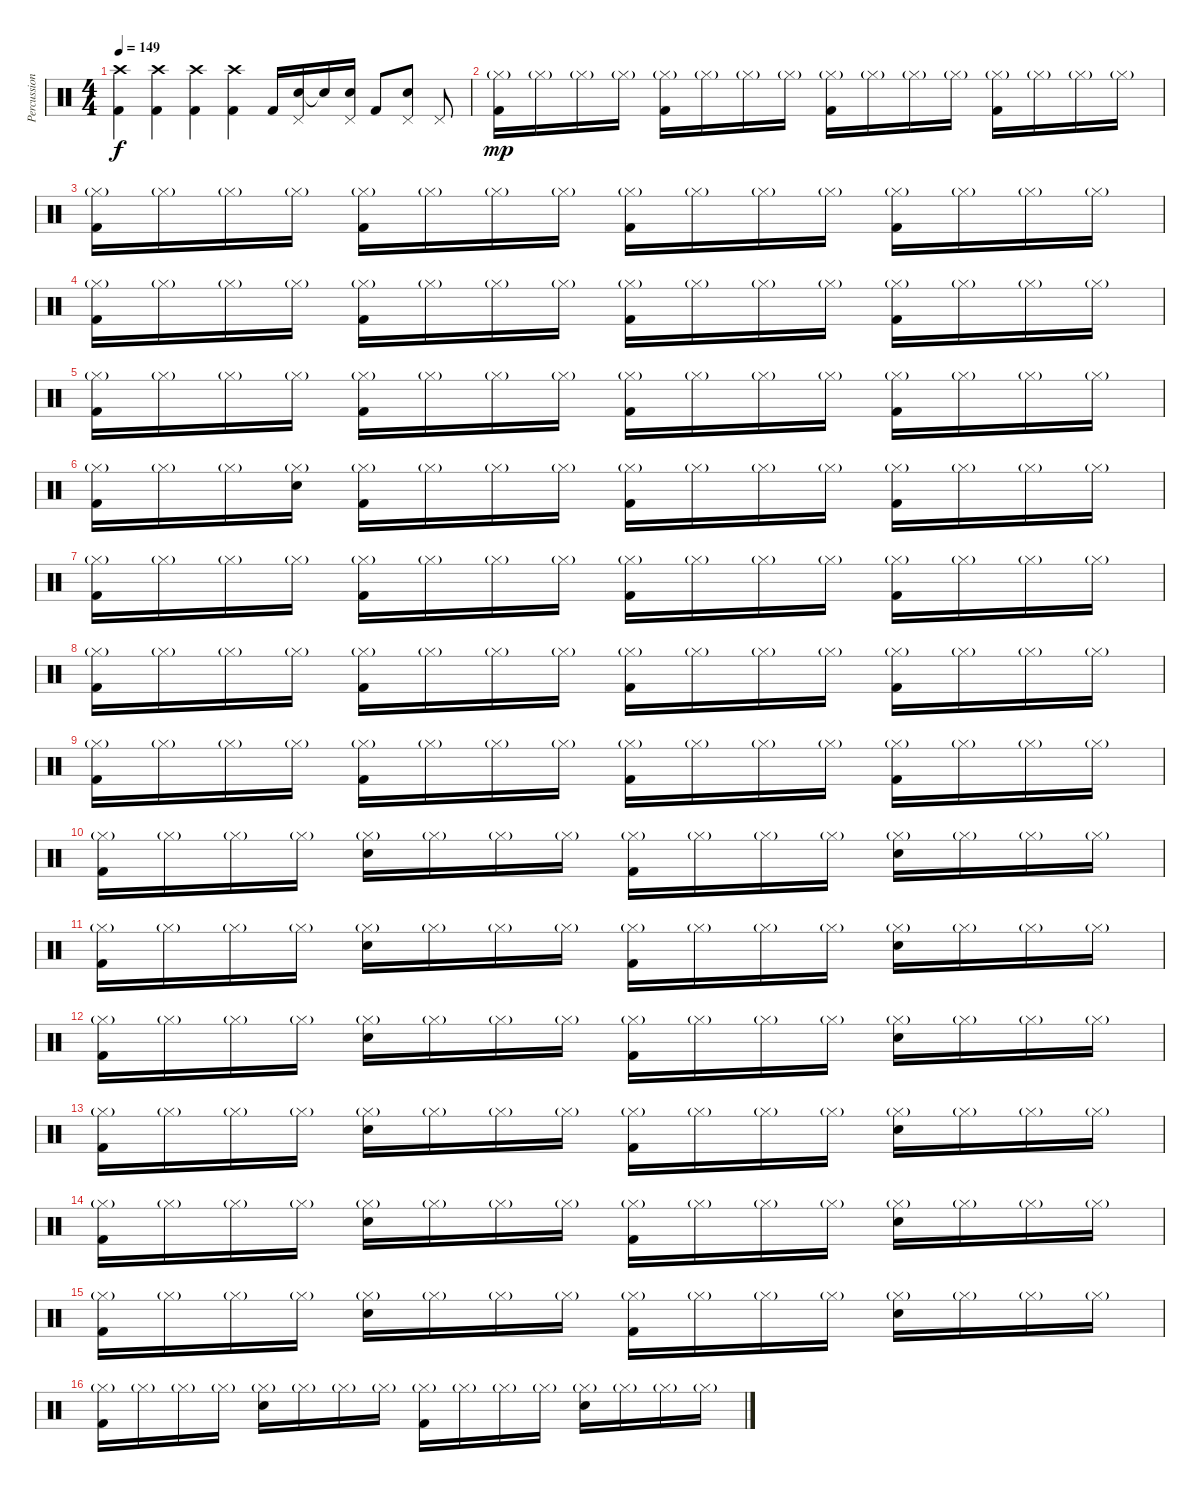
\track ("Percussion" "Percussion") {instrument percussion}
\staff {score}
\articulation defaults
\ts (4 4)
\tempo 149
\clef neutral
\ks c
("Kick (hit) 2" "Crash high (hit)").4{dy f} ("Kick (hit) 2" "Crash high (hit)").4 ("Kick (hit) 2" "Crash high (hit)").4 ("Kick (hit) 2" "Crash high (hit)").4 "Kick (hit) 2".16 ("Electric Snare (hit)" "Pedal Hi-Hat (hit)").16 "Snare (hit)"{t}.16 ("Electric Snare (hit)" "Pedal Hi-Hat (hit)").16 "Kick (hit) 2".8 ("Electric Snare (hit)" "Pedal Hi-Hat (hit)").8 "Pedal Hi-Hat (hit)".8 |
("Hi-Hat (closed)"{g} "Kick (hit) 2").16{dy mp} "Hi-Hat (closed)"{g}.16 "Hi-Hat (closed)"{g}.16 "Hi-Hat (closed)"{g}.16 ("Hi-Hat (closed)"{g} "Kick (hit) 2").16 "Hi-Hat (closed)"{g}.16 "Hi-Hat (closed)"{g}.16 "Hi-Hat (closed)"{g}.16 ("Hi-Hat (closed)"{g} "Kick (hit) 2").16 "Hi-Hat (closed)"{g}.16 "Hi-Hat (closed)"{g}.16 "Hi-Hat (closed)"{g}.16 ("Hi-Hat (closed)"{g} "Kick (hit) 2").16 "Hi-Hat (closed)"{g}.16 "Hi-Hat (closed)"{g}.16 "Hi-Hat (closed)"{g}.16 |
("Hi-Hat (closed)"{g} "Kick (hit) 2").16 "Hi-Hat (closed)"{g}.16 "Hi-Hat (closed)"{g}.16 "Hi-Hat (closed)"{g}.16 ("Hi-Hat (closed)"{g} "Kick (hit) 2").16 "Hi-Hat (closed)"{g}.16 "Hi-Hat (closed)"{g}.16 "Hi-Hat (closed)"{g}.16 ("Hi-Hat (closed)"{g} "Kick (hit) 2").16 "Hi-Hat (closed)"{g}.16 "Hi-Hat (closed)"{g}.16 "Hi-Hat (closed)"{g}.16 ("Hi-Hat (closed)"{g} "Kick (hit) 2").16 "Hi-Hat (closed)"{g}.16 "Hi-Hat (closed)"{g}.16 "Hi-Hat (closed)"{g}.16 |
("Hi-Hat (closed)"{g} "Kick (hit) 2").16 "Hi-Hat (closed)"{g}.16 "Hi-Hat (closed)"{g}.16 "Hi-Hat (closed)"{g}.16 ("Hi-Hat (closed)"{g} "Kick (hit) 2").16 "Hi-Hat (closed)"{g}.16 "Hi-Hat (closed)"{g}.16 "Hi-Hat (closed)"{g}.16 ("Hi-Hat (closed)"{g} "Kick (hit) 2").16 "Hi-Hat (closed)"{g}.16 "Hi-Hat (closed)"{g}.16 "Hi-Hat (closed)"{g}.16 ("Hi-Hat (closed)"{g} "Kick (hit) 2").16 "Hi-Hat (closed)"{g}.16 "Hi-Hat (closed)"{g}.16 "Hi-Hat (closed)"{g}.16 |
("Hi-Hat (closed)"{g} "Kick (hit) 2").16 "Hi-Hat (closed)"{g}.16 "Hi-Hat (closed)"{g}.16 "Hi-Hat (closed)"{g}.16 ("Hi-Hat (closed)"{g} "Kick (hit) 2").16 "Hi-Hat (closed)"{g}.16 "Hi-Hat (closed)"{g}.16 "Hi-Hat (closed)"{g}.16 ("Hi-Hat (closed)"{g} "Kick (hit) 2").16 "Hi-Hat (closed)"{g}.16 "Hi-Hat (closed)"{g}.16 "Hi-Hat (closed)"{g}.16 ("Hi-Hat (closed)"{g} "Kick (hit) 2").16 "Hi-Hat (closed)"{g}.16 "Hi-Hat (closed)"{g}.16 "Hi-Hat (closed)"{g}.16 |
("Hi-Hat (closed)"{g} "Kick (hit) 2").16 "Hi-Hat (closed)"{g}.16 "Hi-Hat (closed)"{g}.16 ("Hi-Hat (closed)"{g} "Snare (hit)").16 ("Hi-Hat (closed)"{g} "Kick (hit) 2").16 "Hi-Hat (closed)"{g}.16 "Hi-Hat (closed)"{g}.16 "Hi-Hat (closed)"{g}.16 ("Hi-Hat (closed)"{g} "Kick (hit) 2").16 "Hi-Hat (closed)"{g}.16 "Hi-Hat (closed)"{g}.16 "Hi-Hat (closed)"{g}.16 ("Hi-Hat (closed)"{g} "Kick (hit) 2").16 "Hi-Hat (closed)"{g}.16 "Hi-Hat (closed)"{g}.16 "Hi-Hat (closed)"{g}.16 |
("Hi-Hat (closed)"{g} "Kick (hit) 2").16 "Hi-Hat (closed)"{g}.16 "Hi-Hat (closed)"{g}.16 "Hi-Hat (closed)"{g}.16 ("Hi-Hat (closed)"{g} "Kick (hit) 2").16 "Hi-Hat (closed)"{g}.16 "Hi-Hat (closed)"{g}.16 "Hi-Hat (closed)"{g}.16 ("Hi-Hat (closed)"{g} "Kick (hit) 2").16 "Hi-Hat (closed)"{g}.16 "Hi-Hat (closed)"{g}.16 "Hi-Hat (closed)"{g}.16 ("Hi-Hat (closed)"{g} "Kick (hit) 2").16 "Hi-Hat (closed)"{g}.16 "Hi-Hat (closed)"{g}.16 "Hi-Hat (closed)"{g}.16 |
("Hi-Hat (closed)"{g} "Kick (hit) 2").16 "Hi-Hat (closed)"{g}.16 "Hi-Hat (closed)"{g}.16 "Hi-Hat (closed)"{g}.16 ("Hi-Hat (closed)"{g} "Kick (hit) 2").16 "Hi-Hat (closed)"{g}.16 "Hi-Hat (closed)"{g}.16 "Hi-Hat (closed)"{g}.16 ("Hi-Hat (closed)"{g} "Kick (hit) 2").16 "Hi-Hat (closed)"{g}.16 "Hi-Hat (closed)"{g}.16 "Hi-Hat (closed)"{g}.16 ("Hi-Hat (closed)"{g} "Kick (hit) 2").16 "Hi-Hat (closed)"{g}.16 "Hi-Hat (closed)"{g}.16 "Hi-Hat (closed)"{g}.16 |
("Hi-Hat (closed)"{g} "Kick (hit) 2").16 "Hi-Hat (closed)"{g}.16 "Hi-Hat (closed)"{g}.16 "Hi-Hat (closed)"{g}.16 ("Hi-Hat (closed)"{g} "Kick (hit) 2").16 "Hi-Hat (closed)"{g}.16 "Hi-Hat (closed)"{g}.16 "Hi-Hat (closed)"{g}.16 ("Hi-Hat (closed)"{g} "Kick (hit) 2").16 "Hi-Hat (closed)"{g}.16 "Hi-Hat (closed)"{g}.16 "Hi-Hat (closed)"{g}.16 ("Hi-Hat (closed)"{g} "Kick (hit) 2").16 "Hi-Hat (closed)"{g}.16 "Hi-Hat (closed)"{g}.16 "Hi-Hat (closed)"{g}.16 |
("Hi-Hat (closed)"{g} "Kick (hit) 2").16 "Hi-Hat (closed)"{g}.16 "Hi-Hat (closed)"{g}.16 "Hi-Hat (closed)"{g}.16 ("Hi-Hat (closed)"{g} "Electric Snare (hit)").16 "Hi-Hat (closed)"{g}.16 "Hi-Hat (closed)"{g}.16 "Hi-Hat (closed)"{g}.16 ("Hi-Hat (closed)"{g} "Kick (hit) 2").16 "Hi-Hat (closed)"{g}.16 "Hi-Hat (closed)"{g}.16 "Hi-Hat (closed)"{g}.16 ("Hi-Hat (closed)"{g} "Electric Snare (hit)").16 "Hi-Hat (closed)"{g}.16 "Hi-Hat (closed)"{g}.16 "Hi-Hat (closed)"{g}.16 |
("Hi-Hat (closed)"{g} "Kick (hit) 2").16 "Hi-Hat (closed)"{g}.16 "Hi-Hat (closed)"{g}.16 "Hi-Hat (closed)"{g}.16 ("Hi-Hat (closed)"{g} "Electric Snare (hit)").16 "Hi-Hat (closed)"{g}.16 "Hi-Hat (closed)"{g}.16 "Hi-Hat (closed)"{g}.16 ("Hi-Hat (closed)"{g} "Kick (hit) 2").16 "Hi-Hat (closed)"{g}.16 "Hi-Hat (closed)"{g}.16 "Hi-Hat (closed)"{g}.16 ("Hi-Hat (closed)"{g} "Electric Snare (hit)").16 "Hi-Hat (closed)"{g}.16 "Hi-Hat (closed)"{g}.16 "Hi-Hat (closed)"{g}.16 |
("Hi-Hat (closed)"{g} "Kick (hit) 2").16 "Hi-Hat (closed)"{g}.16 "Hi-Hat (closed)"{g}.16 "Hi-Hat (closed)"{g}.16 ("Hi-Hat (closed)"{g} "Electric Snare (hit)").16 "Hi-Hat (closed)"{g}.16 "Hi-Hat (closed)"{g}.16 "Hi-Hat (closed)"{g}.16 ("Hi-Hat (closed)"{g} "Kick (hit) 2").16 "Hi-Hat (closed)"{g}.16 "Hi-Hat (closed)"{g}.16 "Hi-Hat (closed)"{g}.16 ("Hi-Hat (closed)"{g} "Electric Snare (hit)").16 "Hi-Hat (closed)"{g}.16 "Hi-Hat (closed)"{g}.16 "Hi-Hat (closed)"{g}.16 |
("Hi-Hat (closed)"{g} "Kick (hit) 2").16 "Hi-Hat (closed)"{g}.16 "Hi-Hat (closed)"{g}.16 "Hi-Hat (closed)"{g}.16 ("Hi-Hat (closed)"{g} "Electric Snare (hit)").16 "Hi-Hat (closed)"{g}.16 "Hi-Hat (closed)"{g}.16 "Hi-Hat (closed)"{g}.16 ("Hi-Hat (closed)"{g} "Kick (hit) 2").16 "Hi-Hat (closed)"{g}.16 "Hi-Hat (closed)"{g}.16 "Hi-Hat (closed)"{g}.16 ("Hi-Hat (closed)"{g} "Electric Snare (hit)").16 "Hi-Hat (closed)"{g}.16 "Hi-Hat (closed)"{g}.16 "Hi-Hat (closed)"{g}.16 |
("Hi-Hat (closed)"{g} "Kick (hit) 2").16 "Hi-Hat (closed)"{g}.16 "Hi-Hat (closed)"{g}.16 "Hi-Hat (closed)"{g}.16 ("Hi-Hat (closed)"{g} "Electric Snare (hit)").16 "Hi-Hat (closed)"{g}.16 "Hi-Hat (closed)"{g}.16 "Hi-Hat (closed)"{g}.16 ("Hi-Hat (closed)"{g} "Kick (hit) 2").16 "Hi-Hat (closed)"{g}.16 "Hi-Hat (closed)"{g}.16 "Hi-Hat (closed)"{g}.16 ("Hi-Hat (closed)"{g} "Electric Snare (hit)").16 "Hi-Hat (closed)"{g}.16 "Hi-Hat (closed)"{g}.16 "Hi-Hat (closed)"{g}.16 |
("Hi-Hat (closed)"{g} "Kick (hit) 2").16 "Hi-Hat (closed)"{g}.16 "Hi-Hat (closed)"{g}.16 "Hi-Hat (closed)"{g}.16 ("Hi-Hat (closed)"{g} "Electric Snare (hit)").16 "Hi-Hat (closed)"{g}.16 "Hi-Hat (closed)"{g}.16 "Hi-Hat (closed)"{g}.16 ("Hi-Hat (closed)"{g} "Kick (hit) 2").16 "Hi-Hat (closed)"{g}.16 "Hi-Hat (closed)"{g}.16 "Hi-Hat (closed)"{g}.16 ("Hi-Hat (closed)"{g} "Electric Snare (hit)").16 "Hi-Hat (closed)"{g}.16 "Hi-Hat (closed)"{g}.16 "Hi-Hat (closed)"{g}.16 |
("Hi-Hat (closed)"{g} "Kick (hit) 2").16 "Hi-Hat (closed)"{g}.16 "Hi-Hat (closed)"{g}.16 "Hi-Hat (closed)"{g}.16 ("Hi-Hat (closed)"{g} "Electric Snare (hit)").16 "Hi-Hat (closed)"{g}.16 "Hi-Hat (closed)"{g}.16 "Hi-Hat (closed)"{g}.16 ("Hi-Hat (closed)"{g} "Kick (hit) 2").16 "Hi-Hat (closed)"{g}.16 "Hi-Hat (closed)"{g}.16 "Hi-Hat (closed)"{g}.16 ("Hi-Hat (closed)"{g} "Electric Snare (hit)").16 "Hi-Hat (closed)"{g}.16 "Hi-Hat (closed)"{g}.16 "Hi-Hat (closed)"{g}.16
